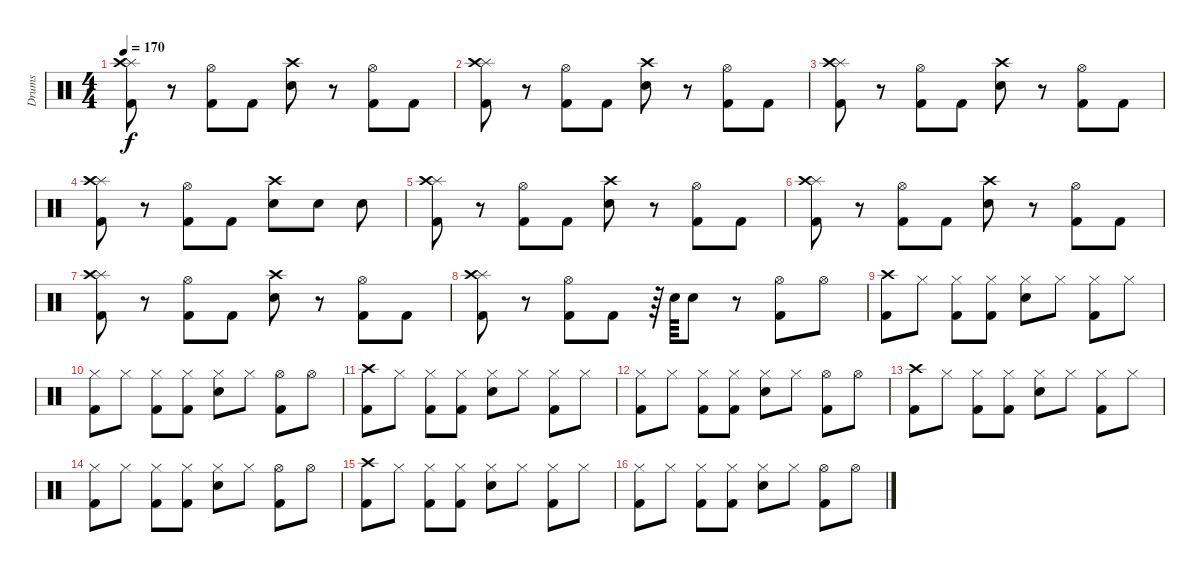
\track ("Drums" "Drums") {instrument percussion}
\staff {score}
\articulation defaults
\ts (4 4)
\tempo 170
\clef neutral
\ks c
("Splash (hit)" "Crash high (hit)" "Kick (hit) 2").8{dy f} r.8 ("Hi-Hat (open)" "Kick (hit) 2").8 "Kick (hit) 2".8 ("Crash high (hit)" "Snare (hit) 2").8 r.8 ("Hi-Hat (open)" "Kick (hit) 2").8 "Kick (hit) 2".8 |
("Splash (hit)" "Crash high (hit)" "Kick (hit) 2").8 r.8 ("Hi-Hat (open)" "Kick (hit) 2").8 "Kick (hit) 2".8 ("Crash high (hit)" "Snare (hit) 2").8 r.8 ("Hi-Hat (open)" "Kick (hit) 2").8 "Kick (hit) 2".8 |
("Splash (hit)" "Crash high (hit)" "Kick (hit) 2").8 r.8 ("Hi-Hat (open)" "Kick (hit) 2").8 "Kick (hit) 2".8 ("Crash high (hit)" "Snare (hit) 2").8 r.8 ("Hi-Hat (open)" "Kick (hit) 2").8 "Kick (hit) 2".8 |
("Splash (hit)" "Crash high (hit)" "Kick (hit) 2").8 r.8 ("Hi-Hat (open)" "Kick (hit) 2").8 "Kick (hit) 2".8 ("Crash high (hit)" "Snare (hit) 2").8 "Snare (hit) 2".8 "Snare (hit) 2".8 |
("Splash (hit)" "Crash high (hit)" "Kick (hit) 2").8 r.8 ("Hi-Hat (open)" "Kick (hit) 2").8 "Kick (hit) 2".8 ("Crash high (hit)" "Snare (hit) 2").8 r.8 ("Hi-Hat (open)" "Kick (hit) 2").8 "Kick (hit) 2".8 |
("Splash (hit)" "Crash high (hit)" "Kick (hit) 2").8 r.8 ("Hi-Hat (open)" "Kick (hit) 2").8 "Kick (hit) 2".8 ("Crash high (hit)" "Snare (hit) 2").8 r.8 ("Hi-Hat (open)" "Kick (hit) 2").8 "Kick (hit) 2".8 |
("Splash (hit)" "Crash high (hit)" "Kick (hit) 2").8 r.8 ("Hi-Hat (open)" "Kick (hit) 2").8 "Kick (hit) 2".8 ("Crash high (hit)" "Snare (hit) 2").8 r.8 ("Hi-Hat (open)" "Kick (hit) 2").8 "Kick (hit) 2".8 |
("Splash (hit)" "Crash high (hit)" "Kick (hit) 2").8 r.8 ("Hi-Hat (open)" "Kick (hit) 2").8 "Kick (hit) 2".8 r.64 "Snare (hit) 2".64 "Snare (hit) 2".8 r.8 ("Hi-Hat (open)" "Kick (hit) 2").8 "Hi-Hat (open)".8 |
("Crash high (hit)" "Kick (hit) 2").8 "Hi-Hat (closed)".8 ("Hi-Hat (closed)" "Kick (hit) 2").8 ("Hi-Hat (closed)" "Kick (hit) 2").8 ("Hi-Hat (closed)" "Snare (hit) 2").8 "Hi-Hat (closed)".8 ("Hi-Hat (closed)" "Kick (hit) 2").8 "Hi-Hat (closed)".8 |
("Hi-Hat (closed)" "Kick (hit) 2").8 "Hi-Hat (closed)".8 ("Hi-Hat (closed)" "Kick (hit) 2").8 ("Hi-Hat (closed)" "Kick (hit) 2").8 ("Hi-Hat (closed)" "Snare (hit) 2").8 "Hi-Hat (closed)".8 ("Hi-Hat (open)" "Kick (hit) 2").8 "Hi-Hat (open)".8 |
("Crash high (hit)" "Kick (hit) 2").8 "Hi-Hat (closed)".8 ("Hi-Hat (closed)" "Kick (hit) 2").8 ("Hi-Hat (closed)" "Kick (hit) 2").8 ("Hi-Hat (closed)" "Snare (hit) 2").8 "Hi-Hat (closed)".8 ("Hi-Hat (closed)" "Kick (hit) 2").8 "Hi-Hat (closed)".8 |
("Hi-Hat (closed)" "Kick (hit) 2").8 "Hi-Hat (closed)".8 ("Hi-Hat (closed)" "Kick (hit) 2").8 ("Hi-Hat (closed)" "Kick (hit) 2").8 ("Hi-Hat (closed)" "Snare (hit) 2").8 "Hi-Hat (closed)".8 ("Hi-Hat (open)" "Kick (hit) 2").8 "Hi-Hat (open)".8 |
("Crash high (hit)" "Kick (hit) 2").8 "Hi-Hat (closed)".8 ("Hi-Hat (closed)" "Kick (hit) 2").8 ("Hi-Hat (closed)" "Kick (hit) 2").8 ("Hi-Hat (closed)" "Snare (hit) 2").8 "Hi-Hat (closed)".8 ("Hi-Hat (closed)" "Kick (hit) 2").8 "Hi-Hat (closed)".8 |
("Hi-Hat (closed)" "Kick (hit) 2").8 "Hi-Hat (closed)".8 ("Hi-Hat (closed)" "Kick (hit) 2").8 ("Hi-Hat (closed)" "Kick (hit) 2").8 ("Hi-Hat (closed)" "Snare (hit) 2").8 "Hi-Hat (closed)".8 ("Hi-Hat (open)" "Kick (hit) 2").8 "Hi-Hat (open)".8 |
("Crash high (hit)" "Kick (hit) 2").8 "Hi-Hat (closed)".8 ("Hi-Hat (closed)" "Kick (hit) 2").8 ("Hi-Hat (closed)" "Kick (hit) 2").8 ("Hi-Hat (closed)" "Snare (hit) 2").8 "Hi-Hat (closed)".8 ("Hi-Hat (closed)" "Kick (hit) 2").8 "Hi-Hat (closed)".8 |
("Hi-Hat (closed)" "Kick (hit) 2").8 "Hi-Hat (closed)".8 ("Hi-Hat (closed)" "Kick (hit) 2").8 ("Hi-Hat (closed)" "Kick (hit) 2").8 ("Hi-Hat (closed)" "Snare (hit) 2").8 "Hi-Hat (closed)".8 ("Hi-Hat (open)" "Kick (hit) 2").8 "Hi-Hat (open)".8
